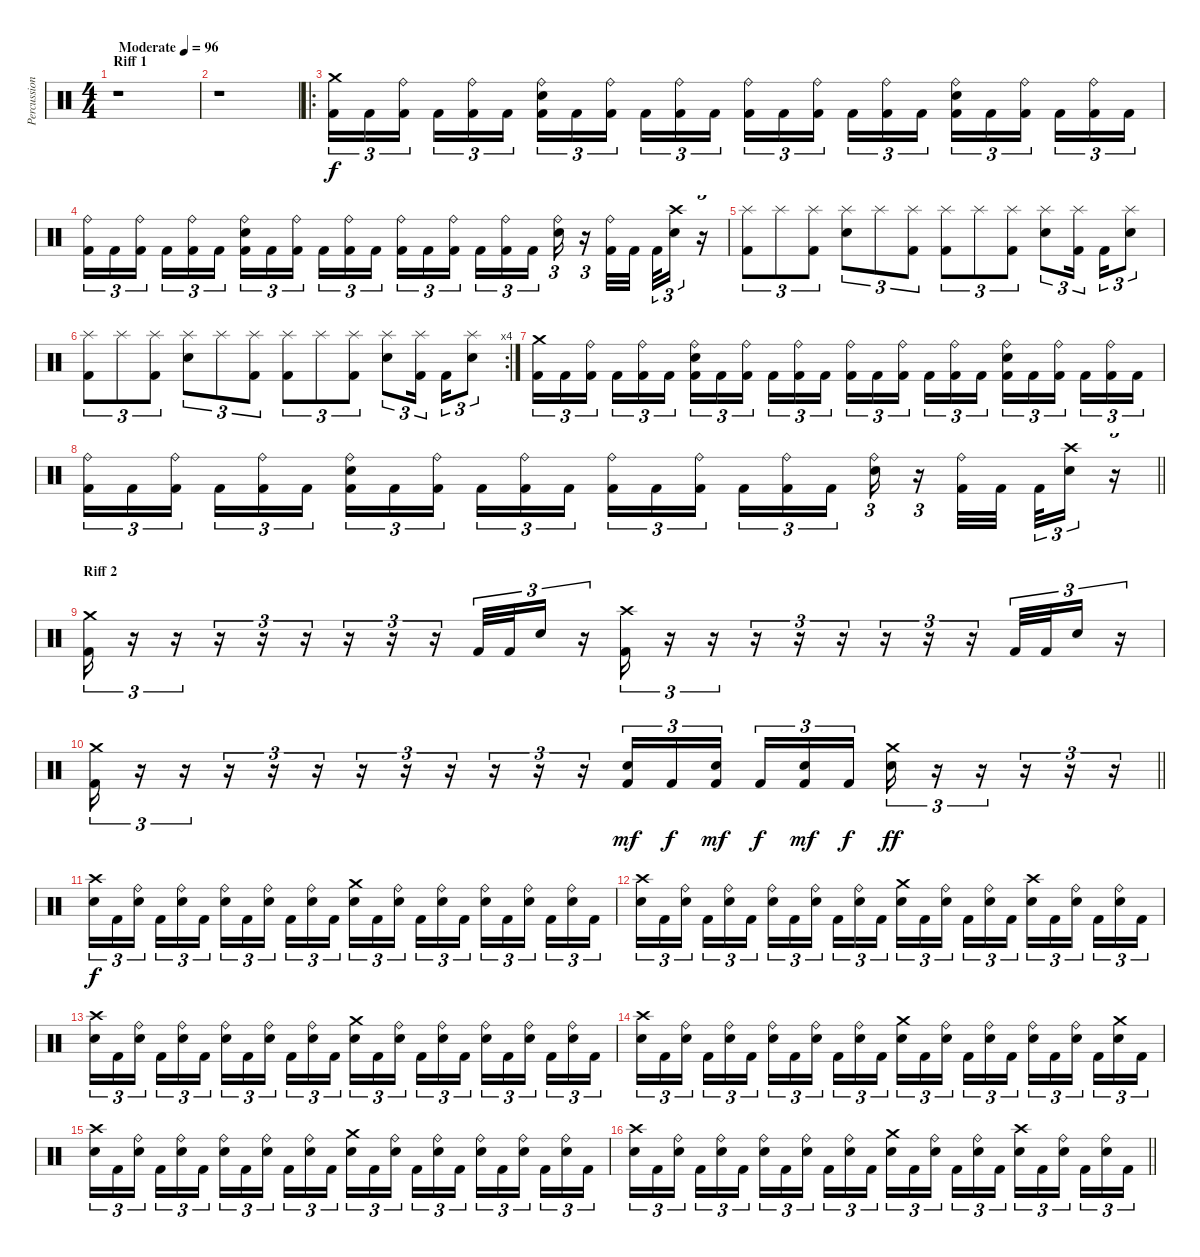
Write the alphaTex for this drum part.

\track ("Percussions" "Percussion") {instrument percussion}
\staff {score}
\articulation defaults
\ts (4 4)
\section ("" "Riff 1")
\tempo (96 "Moderate")
\clef neutral
\ks c
r.1{dy f} |
r.1 |
\ro
("Crash medium (hit)" "Kick (hit) 2").16{tu (3 2)} "Kick (hit) 2".16{tu (3 2)} ("Ride (bell)" "Kick (hit) 2").16{tu (3 2) beam splitsecondary} "Kick (hit) 2".16{tu (3 2)} ("Ride (bell)" "Kick (hit) 2").16{tu (3 2)} "Kick (hit) 2".16{tu (3 2)} ("Ride (bell)" "Snare (hit) 2" "Kick (hit) 2").16{tu (3 2)} "Kick (hit) 2".16{tu (3 2)} ("Ride (bell)" "Kick (hit) 2").16{tu (3 2) beam splitsecondary} "Kick (hit) 2".16{tu (3 2)} ("Ride (bell)" "Kick (hit) 2").16{tu (3 2)} "Kick (hit) 2".16{tu (3 2)} ("Ride (bell)" "Kick (hit) 2").16{tu (3 2)} "Kick (hit) 2".16{tu (3 2)} ("Ride (bell)" "Kick (hit) 2").16{tu (3 2) beam splitsecondary} "Kick (hit) 2".16{tu (3 2)} ("Ride (bell)" "Kick (hit) 2").16{tu (3 2)} "Kick (hit) 2".16{tu (3 2)} ("Ride (bell)" "Snare (hit) 2" "Kick (hit) 2").16{tu (3 2)} "Kick (hit) 2".16{tu (3 2)} ("Ride (bell)" "Kick (hit) 2").16{tu (3 2) beam splitsecondary} "Kick (hit) 2".16{tu (3 2)} ("Ride (bell)" "Kick (hit) 2").16{tu (3 2)} "Kick (hit) 2".16{tu (3 2)} |
("Ride (bell)" "Kick (hit) 2").16{tu (3 2)} "Kick (hit) 2".16{tu (3 2)} ("Ride (bell)" "Kick (hit) 2").16{tu (3 2) beam splitsecondary} "Kick (hit) 2".16{tu (3 2)} ("Ride (bell)" "Kick (hit) 2").16{tu (3 2)} "Kick (hit) 2".16{tu (3 2)} ("Ride (bell)" "Snare (hit) 2" "Kick (hit) 2").16{tu (3 2)} "Kick (hit) 2".16{tu (3 2)} ("Ride (bell)" "Kick (hit) 2").16{tu (3 2) beam splitsecondary} "Kick (hit) 2".16{tu (3 2)} ("Ride (bell)" "Kick (hit) 2").16{tu (3 2)} "Kick (hit) 2".16{tu (3 2)} ("Ride (bell)" "Kick (hit) 2").16{tu (3 2)} "Kick (hit) 2".16{tu (3 2)} ("Ride (bell)" "Kick (hit) 2").16{tu (3 2) beam splitsecondary} "Kick (hit) 2".16{tu (3 2)} ("Ride (bell)" "Kick (hit) 2").16{tu (3 2)} "Kick (hit) 2".16{tu (3 2)} ("Ride (bell)" "Snare (hit) 2").16{tu (3 2)} r.16{tu (3 2)} ("Ride (bell)" "Kick (hit) 2").32 "Kick (hit) 2".32{beam splitsecondary} "Kick (hit) 2".32{tu (3 2)} ("Crash high (hit)" "Snare (hit) 2").16{tu (3 2)} r.16{tu (3 2)} |
("Splash (hit)" "Kick (hit) 2").8{tu (3 2)} "Splash (hit)".8{tu (3 2)} ("Splash (hit)" "Kick (hit) 2").8{tu (3 2)} ("Splash (hit)" "Snare (hit) 2").8{tu (3 2)} "Splash (hit)".8{tu (3 2)} ("Splash (hit)" "Kick (hit) 2").8{tu (3 2)} ("Splash (hit)" "Kick (hit) 2").8{tu (3 2)} "Splash (hit)".8{tu (3 2)} ("Splash (hit)" "Kick (hit) 2").8{tu (3 2)} ("Splash (hit)" "Snare (hit) 2").8{tu (3 2)} ("Splash (hit)" "Kick (hit) 2").16{tu (3 2) beam splitsecondary} "Kick (hit) 2".16{tu (3 2)} ("Splash (hit)" "Snare (hit) 2").8{tu (3 2)} |
\rc 4
("Splash (hit)" "Kick (hit) 2").8{tu (3 2)} "Splash (hit)".8{tu (3 2)} ("Splash (hit)" "Kick (hit) 2").8{tu (3 2)} ("Splash (hit)" "Snare (hit) 2").8{tu (3 2)} "Splash (hit)".8{tu (3 2)} ("Splash (hit)" "Kick (hit) 2").8{tu (3 2)} ("Splash (hit)" "Kick (hit) 2").8{tu (3 2)} "Splash (hit)".8{tu (3 2)} ("Splash (hit)" "Kick (hit) 2").8{tu (3 2)} ("Splash (hit)" "Snare (hit) 2").8{tu (3 2)} ("Splash (hit)" "Kick (hit) 2").16{tu (3 2) beam splitsecondary} "Kick (hit) 2".16{tu (3 2)} ("Splash (hit)" "Snare (hit) 2").8{tu (3 2)} |
("Crash medium (hit)" "Kick (hit) 2").16{tu (3 2)} "Kick (hit) 2".16{tu (3 2)} ("Ride (bell)" "Kick (hit) 2").16{tu (3 2) beam splitsecondary} "Kick (hit) 2".16{tu (3 2)} ("Ride (bell)" "Kick (hit) 2").16{tu (3 2)} "Kick (hit) 2".16{tu (3 2)} ("Ride (bell)" "Snare (hit) 2" "Kick (hit) 2").16{tu (3 2)} "Kick (hit) 2".16{tu (3 2)} ("Ride (bell)" "Kick (hit) 2").16{tu (3 2) beam splitsecondary} "Kick (hit) 2".16{tu (3 2)} ("Ride (bell)" "Kick (hit) 2").16{tu (3 2)} "Kick (hit) 2".16{tu (3 2)} ("Ride (bell)" "Kick (hit) 2").16{tu (3 2)} "Kick (hit) 2".16{tu (3 2)} ("Ride (bell)" "Kick (hit) 2").16{tu (3 2) beam splitsecondary} "Kick (hit) 2".16{tu (3 2)} ("Ride (bell)" "Kick (hit) 2").16{tu (3 2)} "Kick (hit) 2".16{tu (3 2)} ("Ride (bell)" "Snare (hit) 2" "Kick (hit) 2").16{tu (3 2)} "Kick (hit) 2".16{tu (3 2)} ("Ride (bell)" "Kick (hit) 2").16{tu (3 2) beam splitsecondary} "Kick (hit) 2".16{tu (3 2)} ("Ride (bell)" "Kick (hit) 2").16{tu (3 2)} "Kick (hit) 2".16{tu (3 2)} |
\barLineRight lightlight
("Ride (bell)" "Kick (hit) 2").16{tu (3 2)} "Kick (hit) 2".16{tu (3 2)} ("Ride (bell)" "Kick (hit) 2").16{tu (3 2) beam splitsecondary} "Kick (hit) 2".16{tu (3 2)} ("Ride (bell)" "Kick (hit) 2").16{tu (3 2)} "Kick (hit) 2".16{tu (3 2)} ("Ride (bell)" "Snare (hit) 2" "Kick (hit) 2").16{tu (3 2)} "Kick (hit) 2".16{tu (3 2)} ("Ride (bell)" "Kick (hit) 2").16{tu (3 2) beam splitsecondary} "Kick (hit) 2".16{tu (3 2)} ("Ride (bell)" "Kick (hit) 2").16{tu (3 2)} "Kick (hit) 2".16{tu (3 2)} ("Ride (bell)" "Kick (hit) 2").16{tu (3 2)} "Kick (hit) 2".16{tu (3 2)} ("Ride (bell)" "Kick (hit) 2").16{tu (3 2) beam splitsecondary} "Kick (hit) 2".16{tu (3 2)} ("Ride (bell)" "Kick (hit) 2").16{tu (3 2)} "Kick (hit) 2".16{tu (3 2)} ("Ride (bell)" "Snare (hit) 2").16{tu (3 2)} r.16{tu (3 2)} ("Ride (bell)" "Kick (hit) 2").32 "Kick (hit) 2".32{beam splitsecondary} "Kick (hit) 2".32{tu (3 2)} ("Crash high (hit)" "Snare (hit) 2").16{tu (3 2)} r.16{tu (3 2)} |
\section ("" "Riff 2")
("Crash medium (hit)" "Kick (hit) 2").16{tu (3 2)} r.16{tu (3 2)} r.16{tu (3 2)} r.16{tu (3 2)} r.16{tu (3 2)} r.16{tu (3 2)} r.16{tu (3 2)} r.16{tu (3 2)} r.16{tu (3 2)} "Kick (hit) 2".32{tu (3 2)} "Kick (hit) 2".32{tu (3 2)} "Snare (hit) 2".16{tu (3 2)} r.16{tu (3 2)} ("Crash high (hit)" "Kick (hit) 2").16{tu (3 2)} r.16{tu (3 2)} r.16{tu (3 2)} r.16{tu (3 2)} r.16{tu (3 2)} r.16{tu (3 2)} r.16{tu (3 2)} r.16{tu (3 2)} r.16{tu (3 2)} "Kick (hit) 2".32{tu (3 2)} "Kick (hit) 2".32{tu (3 2)} "Snare (hit) 2".16{tu (3 2)} r.16{tu (3 2)} |
\barLineRight lightlight
("Crash medium (hit)" "Kick (hit) 2").16{tu (3 2)} r.16{tu (3 2)} r.16{tu (3 2)} r.16{tu (3 2)} r.16{tu (3 2)} r.16{tu (3 2)} r.16{tu (3 2)} r.16{tu (3 2)} r.16{tu (3 2)} r.16{tu (3 2)} r.16{tu (3 2)} r.16{tu (3 2)} ("Snare (hit) 2" "Kick (hit) 2").16{tu (3 2) dy mf} "Kick (hit) 2".16{tu (3 2) dy f} ("Snare (hit) 2" "Kick (hit) 2").16{tu (3 2) dy mf beam splitsecondary} "Kick (hit) 2".16{tu (3 2) dy f} ("Snare (hit) 2" "Kick (hit) 2").16{tu (3 2) dy mf} "Kick (hit) 2".16{tu (3 2) dy f} ("Crash medium (hit)" "Snare (hit) 2").16{tu (3 2) dy ff} r.16{tu (3 2)} r.16{tu (3 2)} r.16{tu (3 2)} r.16{tu (3 2)} r.16{tu (3 2)} |
("Crash high (hit)" "Snare (hit) 2").16{tu (3 2) dy f} "Kick (hit) 2".16{tu (3 2)} ("Ride (bell)" "Snare (hit) 2").16{tu (3 2) beam splitsecondary} "Kick (hit) 2".16{tu (3 2)} ("Ride (bell)" "Snare (hit) 2").16{tu (3 2)} "Kick (hit) 2".16{tu (3 2)} ("Ride (bell)" "Snare (hit) 2").16{tu (3 2)} "Kick (hit) 2".16{tu (3 2)} ("Ride (bell)" "Snare (hit) 2").16{tu (3 2) beam splitsecondary} "Kick (hit) 2".16{tu (3 2)} ("Ride (bell)" "Snare (hit) 2").16{tu (3 2)} "Kick (hit) 2".16{tu (3 2)} ("Crash medium (hit)" "Snare (hit) 2").16{tu (3 2)} "Kick (hit) 2".16{tu (3 2)} ("Ride (bell)" "Snare (hit) 2").16{tu (3 2) beam splitsecondary} "Kick (hit) 2".16{tu (3 2)} ("Ride (bell)" "Snare (hit) 2").16{tu (3 2)} "Kick (hit) 2".16{tu (3 2)} ("Ride (bell)" "Snare (hit) 2").16{tu (3 2)} "Kick (hit) 2".16{tu (3 2)} ("Ride (bell)" "Snare (hit) 2").16{tu (3 2) beam splitsecondary} "Kick (hit) 2".16{tu (3 2)} ("Ride (bell)" "Snare (hit) 2").16{tu (3 2)} "Kick (hit) 2".16{tu (3 2)} |
("Crash high (hit)" "Snare (hit) 2").16{tu (3 2)} "Kick (hit) 2".16{tu (3 2)} ("Ride (bell)" "Snare (hit) 2").16{tu (3 2) beam splitsecondary} "Kick (hit) 2".16{tu (3 2)} ("Ride (bell)" "Snare (hit) 2").16{tu (3 2)} "Kick (hit) 2".16{tu (3 2)} ("Ride (bell)" "Snare (hit) 2").16{tu (3 2)} "Kick (hit) 2".16{tu (3 2)} ("Ride (bell)" "Snare (hit) 2").16{tu (3 2) beam splitsecondary} "Kick (hit) 2".16{tu (3 2)} ("Ride (bell)" "Snare (hit) 2").16{tu (3 2)} "Kick (hit) 2".16{tu (3 2)} ("Crash medium (hit)" "Snare (hit) 2").16{tu (3 2)} "Kick (hit) 2".16{tu (3 2)} ("Ride (bell)" "Snare (hit) 2").16{tu (3 2) beam splitsecondary} "Kick (hit) 2".16{tu (3 2)} ("Ride (bell)" "Snare (hit) 2").16{tu (3 2)} "Kick (hit) 2".16{tu (3 2)} ("Crash high (hit)" "Snare (hit) 2").16{tu (3 2)} "Kick (hit) 2".16{tu (3 2)} ("Ride (bell)" "Snare (hit) 2").16{tu (3 2) beam splitsecondary} "Kick (hit) 2".16{tu (3 2)} ("Ride (bell)" "Snare (hit) 2").16{tu (3 2)} "Kick (hit) 2".16{tu (3 2)} |
("Crash high (hit)" "Snare (hit) 2").16{tu (3 2)} "Kick (hit) 2".16{tu (3 2)} ("Ride (bell)" "Snare (hit) 2").16{tu (3 2) beam splitsecondary} "Kick (hit) 2".16{tu (3 2)} ("Ride (bell)" "Snare (hit) 2").16{tu (3 2)} "Kick (hit) 2".16{tu (3 2)} ("Ride (bell)" "Snare (hit) 2").16{tu (3 2)} "Kick (hit) 2".16{tu (3 2)} ("Ride (bell)" "Snare (hit) 2").16{tu (3 2) beam splitsecondary} "Kick (hit) 2".16{tu (3 2)} ("Ride (bell)" "Snare (hit) 2").16{tu (3 2)} "Kick (hit) 2".16{tu (3 2)} ("Crash medium (hit)" "Snare (hit) 2").16{tu (3 2)} "Kick (hit) 2".16{tu (3 2)} ("Ride (bell)" "Snare (hit) 2").16{tu (3 2) beam splitsecondary} "Kick (hit) 2".16{tu (3 2)} ("Ride (bell)" "Snare (hit) 2").16{tu (3 2)} "Kick (hit) 2".16{tu (3 2)} ("Ride (bell)" "Snare (hit) 2").16{tu (3 2)} "Kick (hit) 2".16{tu (3 2)} ("Ride (bell)" "Snare (hit) 2").16{tu (3 2) beam splitsecondary} "Kick (hit) 2".16{tu (3 2)} ("Ride (bell)" "Snare (hit) 2").16{tu (3 2)} "Kick (hit) 2".16{tu (3 2)} |
("Crash high (hit)" "Snare (hit) 2").16{tu (3 2)} "Kick (hit) 2".16{tu (3 2)} ("Ride (bell)" "Snare (hit) 2").16{tu (3 2) beam splitsecondary} "Kick (hit) 2".16{tu (3 2)} ("Ride (bell)" "Snare (hit) 2").16{tu (3 2)} "Kick (hit) 2".16{tu (3 2)} ("Ride (bell)" "Snare (hit) 2").16{tu (3 2)} "Kick (hit) 2".16{tu (3 2)} ("Ride (bell)" "Snare (hit) 2").16{tu (3 2) beam splitsecondary} "Kick (hit) 2".16{tu (3 2)} ("Ride (bell)" "Snare (hit) 2").16{tu (3 2)} "Kick (hit) 2".16{tu (3 2)} ("Crash medium (hit)" "Snare (hit) 2").16{tu (3 2)} "Kick (hit) 2".16{tu (3 2)} ("Ride (bell)" "Snare (hit) 2").16{tu (3 2) beam splitsecondary} "Kick (hit) 2".16{tu (3 2)} ("Ride (bell)" "Snare (hit) 2").16{tu (3 2)} "Kick (hit) 2".16{tu (3 2)} ("Ride (bell)" "Snare (hit) 2").16{tu (3 2)} "Kick (hit) 2".16{tu (3 2)} ("Ride (bell)" "Snare (hit) 2").16{tu (3 2) beam splitsecondary} "Kick (hit) 2".16{tu (3 2)} ("Crash medium (hit)" "Snare (hit) 2").16{tu (3 2)} "Kick (hit) 2".16{tu (3 2)} |
("Crash high (hit)" "Snare (hit) 2").16{tu (3 2)} "Kick (hit) 2".16{tu (3 2)} ("Ride (bell)" "Snare (hit) 2").16{tu (3 2) beam splitsecondary} "Kick (hit) 2".16{tu (3 2)} ("Ride (bell)" "Snare (hit) 2").16{tu (3 2)} "Kick (hit) 2".16{tu (3 2)} ("Ride (bell)" "Snare (hit) 2").16{tu (3 2)} "Kick (hit) 2".16{tu (3 2)} ("Ride (bell)" "Snare (hit) 2").16{tu (3 2) beam splitsecondary} "Kick (hit) 2".16{tu (3 2)} ("Ride (bell)" "Snare (hit) 2").16{tu (3 2)} "Kick (hit) 2".16{tu (3 2)} ("Crash medium (hit)" "Snare (hit) 2").16{tu (3 2)} "Kick (hit) 2".16{tu (3 2)} ("Ride (bell)" "Snare (hit) 2").16{tu (3 2) beam splitsecondary} "Kick (hit) 2".16{tu (3 2)} ("Ride (bell)" "Snare (hit) 2").16{tu (3 2)} "Kick (hit) 2".16{tu (3 2)} ("Ride (bell)" "Snare (hit) 2").16{tu (3 2)} "Kick (hit) 2".16{tu (3 2)} ("Ride (bell)" "Snare (hit) 2").16{tu (3 2) beam splitsecondary} "Kick (hit) 2".16{tu (3 2)} ("Ride (bell)" "Snare (hit) 2").16{tu (3 2)} "Kick (hit) 2".16{tu (3 2)} |
\barLineRight lightlight
("Crash high (hit)" "Snare (hit) 2").16{tu (3 2)} "Kick (hit) 2".16{tu (3 2)} ("Ride (bell)" "Snare (hit) 2").16{tu (3 2) beam splitsecondary} "Kick (hit) 2".16{tu (3 2)} ("Ride (bell)" "Snare (hit) 2").16{tu (3 2)} "Kick (hit) 2".16{tu (3 2)} ("Ride (bell)" "Snare (hit) 2").16{tu (3 2)} "Kick (hit) 2".16{tu (3 2)} ("Ride (bell)" "Snare (hit) 2").16{tu (3 2) beam splitsecondary} "Kick (hit) 2".16{tu (3 2)} ("Ride (bell)" "Snare (hit) 2").16{tu (3 2)} "Kick (hit) 2".16{tu (3 2)} ("Crash medium (hit)" "Snare (hit) 2").16{tu (3 2)} "Kick (hit) 2".16{tu (3 2)} ("Ride (bell)" "Snare (hit) 2").16{tu (3 2) beam splitsecondary} "Kick (hit) 2".16{tu (3 2)} ("Ride (bell)" "Snare (hit) 2").16{tu (3 2)} "Kick (hit) 2".16{tu (3 2)} ("Crash high (hit)" "Snare (hit) 2").16{tu (3 2)} "Kick (hit) 2".16{tu (3 2)} ("Ride (bell)" "Snare (hit) 2").16{tu (3 2) beam splitsecondary} "Kick (hit) 2".16{tu (3 2)} ("Ride (bell)" "Snare (hit) 2").16{tu (3 2)} "Kick (hit) 2".16{tu (3 2)}
